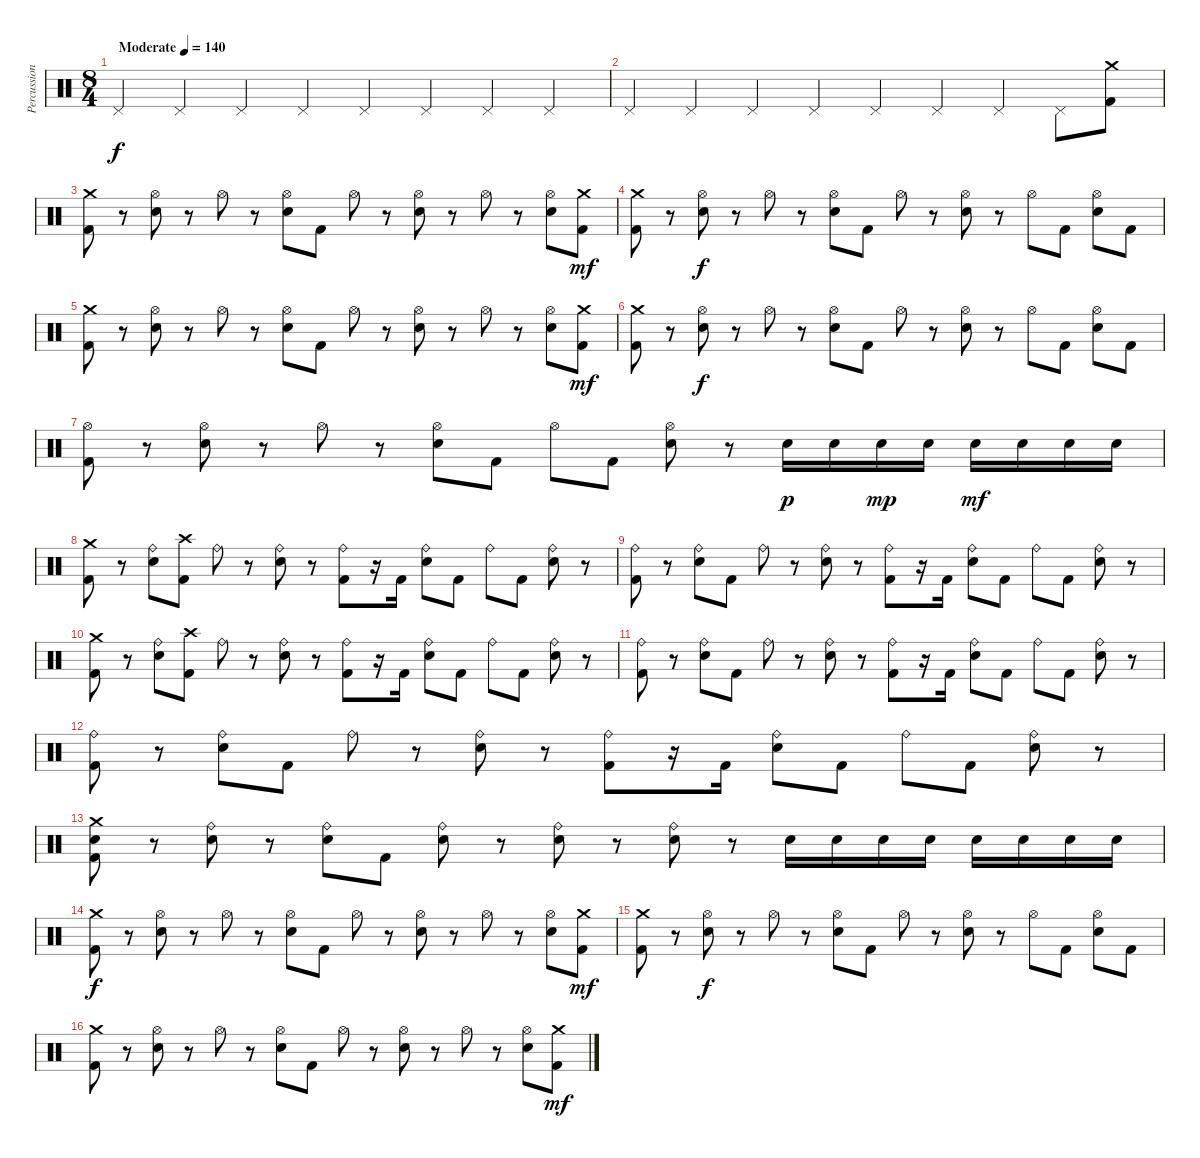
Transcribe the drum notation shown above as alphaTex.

\track ("Percussion" "Percussion") {instrument percussion}
\staff {score}
\articulation defaults
\ts (8 4)
\tempo (140 "Moderate")
\clef neutral
\ks c "Pedal Hi-Hat (hit)".4{dy f} "Pedal Hi-Hat (hit)".4 "Pedal Hi-Hat (hit)".4 "Pedal Hi-Hat (hit)".4 "Pedal Hi-Hat (hit)".4 "Pedal Hi-Hat (hit)".4 "Pedal Hi-Hat (hit)".4 "Pedal Hi-Hat (hit)".4
|
"Pedal Hi-Hat (hit)".4 "Pedal Hi-Hat (hit)".4 "Pedal Hi-Hat (hit)".4 "Pedal Hi-Hat (hit)".4 "Pedal Hi-Hat (hit)".4 "Pedal Hi-Hat (hit)".4 "Pedal Hi-Hat (hit)".4 "Pedal Hi-Hat (hit)".8 ("Crash medium (hit)" "Kick (hit) 2").8 |
("Crash medium (hit)" "Kick (hit) 2").8 r.8 ("Hi-Hat (open)" "Electric Snare (hit)").8 r.8 "Hi-Hat (open)".8 r.8 ("Hi-Hat (open)" "Electric Snare (hit)").8 "Kick (hit) 2".8 "Hi-Hat (open)".8 r.8 ("Hi-Hat (open)" "Electric Snare (hit)").8 r.8 "Hi-Hat (open)".8 r.8 ("Hi-Hat (open)" "Electric Snare (hit)").8 ("Crash medium (hit)" "Kick (hit) 2").8{dy mf} |
("Crash medium (hit)" "Kick (hit) 2").8 r.8 ("Hi-Hat (open)" "Electric Snare (hit)").8{dy f} r.8 "Hi-Hat (open)".8 r.8 ("Hi-Hat (open)" "Electric Snare (hit)").8 "Kick (hit) 2".8 "Hi-Hat (open)".8 r.8 ("Hi-Hat (open)" "Electric Snare (hit)").8 r.8 "Hi-Hat (open)".8 "Kick (hit) 2".8 ("Hi-Hat (open)" "Electric Snare (hit)").8 "Kick (hit) 2".8 |
("Crash medium (hit)" "Kick (hit) 2").8 r.8 ("Hi-Hat (open)" "Electric Snare (hit)").8 r.8 "Hi-Hat (open)".8 r.8 ("Hi-Hat (open)" "Electric Snare (hit)").8 "Kick (hit) 2".8 "Hi-Hat (open)".8 r.8 ("Hi-Hat (open)" "Electric Snare (hit)").8 r.8 "Hi-Hat (open)".8 r.8 ("Hi-Hat (open)" "Electric Snare (hit)").8 ("Crash medium (hit)" "Kick (hit) 2").8{dy mf} |
("Crash medium (hit)" "Kick (hit) 2").8 r.8 ("Hi-Hat (open)" "Electric Snare (hit)").8{dy f} r.8 "Hi-Hat (open)".8 r.8 ("Hi-Hat (open)" "Electric Snare (hit)").8 "Kick (hit) 2".8 "Hi-Hat (open)".8 r.8 ("Hi-Hat (open)" "Electric Snare (hit)").8 r.8 "Hi-Hat (open)".8 "Kick (hit) 2".8 ("Hi-Hat (open)" "Electric Snare (hit)").8 "Kick (hit) 2".8 |
("Hi-Hat (open)" "Kick (hit) 2").8 r.8 ("Hi-Hat (open)" "Electric Snare (hit)").8 r.8 "Hi-Hat (open)".8 r.8 ("Hi-Hat (open)" "Electric Snare (hit)").8 "Kick (hit) 2".8 "Hi-Hat (open)".8 "Kick (hit) 2".8 ("Hi-Hat (open)" "Electric Snare (hit)").8 r.8 "Electric Snare (hit)".16{dy p} "Electric Snare (hit)".16 "Electric Snare (hit)".16{dy mp} "Electric Snare (hit)".16 "Electric Snare (hit)".16{dy mf} "Electric Snare (hit)".16 "Electric Snare (hit)".16 "Electric Snare (hit)".16 |
("Crash medium (hit)" "Kick (hit) 2").8 r.8 ("Ride (bell)" "Electric Snare (hit)").8 ("Crash high (hit)" "Kick (hit) 2").8 "Ride (bell)".8 r.8 ("Ride (bell)" "Electric Snare (hit)").8 r.8 ("Ride (bell)" "Kick (hit) 2").8 r.16 "Kick (hit) 2".16 ("Ride (bell)" "Electric Snare (hit)").8 "Kick (hit) 2".8 "Ride (bell)".8 "Kick (hit) 2".8 ("Ride (bell)" "Electric Snare (hit)").8 r.8 |
("Ride (bell)" "Kick (hit) 2").8 r.8 ("Ride (bell)" "Electric Snare (hit)").8 "Kick (hit) 2".8 "Ride (bell)".8 r.8 ("Ride (bell)" "Electric Snare (hit)").8 r.8 ("Ride (bell)" "Kick (hit) 2").8 r.16 "Kick (hit) 2".16 ("Ride (bell)" "Electric Snare (hit)").8 "Kick (hit) 2".8 "Ride (bell)".8 "Kick (hit) 2".8 ("Ride (bell)" "Electric Snare (hit)").8 r.8 |
("Crash medium (hit)" "Kick (hit) 2").8 r.8 ("Ride (bell)" "Electric Snare (hit)").8 ("Crash high (hit)" "Kick (hit) 2").8 "Ride (bell)".8 r.8 ("Ride (bell)" "Electric Snare (hit)").8 r.8 ("Ride (bell)" "Kick (hit) 2").8 r.16 "Kick (hit) 2".16 ("Ride (bell)" "Electric Snare (hit)").8 "Kick (hit) 2".8 "Ride (bell)".8 "Kick (hit) 2".8 ("Ride (bell)" "Electric Snare (hit)").8 r.8 |
("Ride (bell)" "Kick (hit) 2").8 r.8 ("Ride (bell)" "Electric Snare (hit)").8 "Kick (hit) 2".8 "Ride (bell)".8 r.8 ("Ride (bell)" "Electric Snare (hit)").8 r.8 ("Ride (bell)" "Kick (hit) 2").8 r.16 "Kick (hit) 2".16 ("Ride (bell)" "Electric Snare (hit)").8 "Kick (hit) 2".8 "Ride (bell)".8 "Kick (hit) 2".8 ("Ride (bell)" "Electric Snare (hit)").8 r.8 |
("Ride (bell)" "Kick (hit) 2").8 r.8 ("Ride (bell)" "Electric Snare (hit)").8 "Kick (hit) 2".8 "Ride (bell)".8 r.8 ("Ride (bell)" "Electric Snare (hit)").8 r.8 ("Ride (bell)" "Kick (hit) 2").8 r.16 "Kick (hit) 2".16 ("Ride (bell)" "Electric Snare (hit)").8 "Kick (hit) 2".8 "Ride (bell)".8 "Kick (hit) 2".8 ("Ride (bell)" "Electric Snare (hit)").8 r.8 |
("Crash medium (hit)" "Electric Snare (hit)" "Kick (hit) 2").8 r.8 ("Ride (bell)" "Electric Snare (hit)").8 r.8 ("Ride (bell)" "Electric Snare (hit)").8 "Kick (hit) 2".8 ("Ride (bell)" "Electric Snare (hit)").8 r.8 ("Ride (bell)" "Electric Snare (hit)").8 r.8 ("Ride (bell)" "Electric Snare (hit)").8 r.8 "Electric Snare (hit)".16 "Electric Snare (hit)".16 "Electric Snare (hit)".16 "Electric Snare (hit)".16 "Electric Snare (hit)".16 "Electric Snare (hit)".16 "Electric Snare (hit)".16 "Electric Snare (hit)".16 |
("Crash medium (hit)" "Kick (hit) 2").8{dy f} r.8 ("Hi-Hat (open)" "Electric Snare (hit)").8 r.8 "Hi-Hat (open)".8 r.8 ("Hi-Hat (open)" "Electric Snare (hit)").8 "Kick (hit) 2".8 "Hi-Hat (open)".8 r.8 ("Hi-Hat (open)" "Electric Snare (hit)").8 r.8 "Hi-Hat (open)".8 r.8 ("Hi-Hat (open)" "Electric Snare (hit)").8 ("Crash medium (hit)" "Kick (hit) 2").8{dy mf} |
("Crash medium (hit)" "Kick (hit) 2").8 r.8 ("Hi-Hat (open)" "Electric Snare (hit)").8{dy f} r.8 "Hi-Hat (open)".8 r.8 ("Hi-Hat (open)" "Electric Snare (hit)").8 "Kick (hit) 2".8 "Hi-Hat (open)".8 r.8 ("Hi-Hat (open)" "Electric Snare (hit)").8 r.8 "Hi-Hat (open)".8 "Kick (hit) 2".8 ("Hi-Hat (open)" "Electric Snare (hit)").8 "Kick (hit) 2".8 |
("Crash medium (hit)" "Kick (hit) 2").8 r.8 ("Hi-Hat (open)" "Electric Snare (hit)").8 r.8 "Hi-Hat (open)".8 r.8 ("Hi-Hat (open)" "Electric Snare (hit)").8 "Kick (hit) 2".8 "Hi-Hat (open)".8 r.8 ("Hi-Hat (open)" "Electric Snare (hit)").8 r.8 "Hi-Hat (open)".8 r.8 ("Hi-Hat (open)" "Electric Snare (hit)").8 ("Crash medium (hit)" "Kick (hit) 2").8{dy mf}
